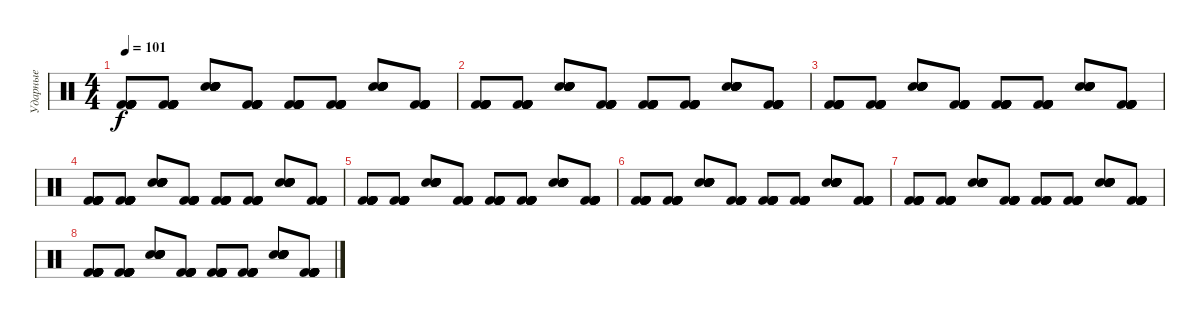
\track ("Ударные" "Ударные") {instrument percussion}
\staff {score}
\articulation defaults
\ts (4 4)
\tempo 101
\clef neutral
\ks c
("Kick (hit) 2" "Kick (hit) 2" "Kick (hit) 2" "Kick (hit) 2" "Kick (hit) 2" "Kick (hit) 2").8{dy f} ("Kick (hit) 2" "Kick (hit) 2" "Kick (hit) 2" "Kick (hit) 2" "Kick (hit) 2" "Kick (hit) 2").8 ("Snare (hit) 2" "Snare (hit) 2" "Snare (hit) 2" "Snare (hit) 2" "Snare (hit) 2" "Snare (hit) 2").8 ("Kick (hit) 2" "Kick (hit) 2" "Kick (hit) 2" "Kick (hit) 2" "Kick (hit) 2" "Kick (hit) 2").8 ("Kick (hit) 2" "Kick (hit) 2" "Kick (hit) 2" "Kick (hit) 2" "Kick (hit) 2" "Kick (hit) 2").8 ("Kick (hit) 2" "Kick (hit) 2" "Kick (hit) 2" "Kick (hit) 2" "Kick (hit) 2" "Kick (hit) 2").8 ("Snare (hit) 2" "Snare (hit) 2" "Snare (hit) 2" "Snare (hit) 2" "Snare (hit) 2" "Snare (hit) 2").8 ("Kick (hit) 2" "Kick (hit) 2" "Kick (hit) 2" "Kick (hit) 2" "Kick (hit) 2" "Kick (hit) 2").8 |
("Kick (hit) 2" "Kick (hit) 2" "Kick (hit) 2" "Kick (hit) 2" "Kick (hit) 2" "Kick (hit) 2").8 ("Kick (hit) 2" "Kick (hit) 2" "Kick (hit) 2" "Kick (hit) 2" "Kick (hit) 2" "Kick (hit) 2").8 ("Snare (hit) 2" "Snare (hit) 2" "Snare (hit) 2" "Snare (hit) 2" "Snare (hit) 2" "Snare (hit) 2").8 ("Kick (hit) 2" "Kick (hit) 2" "Kick (hit) 2" "Kick (hit) 2" "Kick (hit) 2" "Kick (hit) 2").8 ("Kick (hit) 2" "Kick (hit) 2" "Kick (hit) 2" "Kick (hit) 2" "Kick (hit) 2" "Kick (hit) 2").8 ("Kick (hit) 2" "Kick (hit) 2" "Kick (hit) 2" "Kick (hit) 2" "Kick (hit) 2" "Kick (hit) 2").8 ("Snare (hit) 2" "Snare (hit) 2" "Snare (hit) 2" "Snare (hit) 2" "Snare (hit) 2" "Snare (hit) 2").8 ("Kick (hit) 2" "Kick (hit) 2" "Kick (hit) 2" "Kick (hit) 2" "Kick (hit) 2" "Kick (hit) 2").8 |
("Kick (hit) 2" "Kick (hit) 2" "Kick (hit) 2" "Kick (hit) 2" "Kick (hit) 2" "Kick (hit) 2").8 ("Kick (hit) 2" "Kick (hit) 2" "Kick (hit) 2" "Kick (hit) 2" "Kick (hit) 2" "Kick (hit) 2").8 ("Snare (hit) 2" "Snare (hit) 2" "Snare (hit) 2" "Snare (hit) 2" "Snare (hit) 2" "Snare (hit) 2").8 ("Kick (hit) 2" "Kick (hit) 2" "Kick (hit) 2" "Kick (hit) 2" "Kick (hit) 2" "Kick (hit) 2").8 ("Kick (hit) 2" "Kick (hit) 2" "Kick (hit) 2" "Kick (hit) 2" "Kick (hit) 2" "Kick (hit) 2").8 ("Kick (hit) 2" "Kick (hit) 2" "Kick (hit) 2" "Kick (hit) 2" "Kick (hit) 2" "Kick (hit) 2").8 ("Snare (hit) 2" "Snare (hit) 2" "Snare (hit) 2" "Snare (hit) 2" "Snare (hit) 2" "Snare (hit) 2").8 ("Kick (hit) 2" "Kick (hit) 2" "Kick (hit) 2" "Kick (hit) 2" "Kick (hit) 2" "Kick (hit) 2").8 |
("Kick (hit) 2" "Kick (hit) 2" "Kick (hit) 2" "Kick (hit) 2" "Kick (hit) 2" "Kick (hit) 2").8 ("Kick (hit) 2" "Kick (hit) 2" "Kick (hit) 2" "Kick (hit) 2" "Kick (hit) 2" "Kick (hit) 2").8 ("Snare (hit) 2" "Snare (hit) 2" "Snare (hit) 2" "Snare (hit) 2" "Snare (hit) 2" "Snare (hit) 2").8 ("Kick (hit) 2" "Kick (hit) 2" "Kick (hit) 2" "Kick (hit) 2" "Kick (hit) 2" "Kick (hit) 2").8 ("Kick (hit) 2" "Kick (hit) 2" "Kick (hit) 2" "Kick (hit) 2" "Kick (hit) 2" "Kick (hit) 2").8 ("Kick (hit) 2" "Kick (hit) 2" "Kick (hit) 2" "Kick (hit) 2" "Kick (hit) 2" "Kick (hit) 2").8 ("Snare (hit) 2" "Snare (hit) 2" "Snare (hit) 2" "Snare (hit) 2" "Snare (hit) 2" "Snare (hit) 2").8 ("Kick (hit) 2" "Kick (hit) 2" "Kick (hit) 2" "Kick (hit) 2" "Kick (hit) 2" "Kick (hit) 2").8 |
("Kick (hit) 2" "Kick (hit) 2" "Kick (hit) 2" "Kick (hit) 2" "Kick (hit) 2" "Kick (hit) 2").8 ("Kick (hit) 2" "Kick (hit) 2" "Kick (hit) 2" "Kick (hit) 2" "Kick (hit) 2" "Kick (hit) 2").8 ("Snare (hit) 2" "Snare (hit) 2" "Snare (hit) 2" "Snare (hit) 2" "Snare (hit) 2" "Snare (hit) 2").8 ("Kick (hit) 2" "Kick (hit) 2" "Kick (hit) 2" "Kick (hit) 2" "Kick (hit) 2" "Kick (hit) 2").8 ("Kick (hit) 2" "Kick (hit) 2" "Kick (hit) 2" "Kick (hit) 2" "Kick (hit) 2" "Kick (hit) 2").8 ("Kick (hit) 2" "Kick (hit) 2" "Kick (hit) 2" "Kick (hit) 2" "Kick (hit) 2" "Kick (hit) 2").8 ("Snare (hit) 2" "Snare (hit) 2" "Snare (hit) 2" "Snare (hit) 2" "Snare (hit) 2" "Snare (hit) 2").8 ("Kick (hit) 2" "Kick (hit) 2" "Kick (hit) 2" "Kick (hit) 2" "Kick (hit) 2" "Kick (hit) 2").8 |
("Kick (hit) 2" "Kick (hit) 2" "Kick (hit) 2" "Kick (hit) 2" "Kick (hit) 2" "Kick (hit) 2").8 ("Kick (hit) 2" "Kick (hit) 2" "Kick (hit) 2" "Kick (hit) 2" "Kick (hit) 2" "Kick (hit) 2").8 ("Snare (hit) 2" "Snare (hit) 2" "Snare (hit) 2" "Snare (hit) 2" "Snare (hit) 2" "Snare (hit) 2").8 ("Kick (hit) 2" "Kick (hit) 2" "Kick (hit) 2" "Kick (hit) 2" "Kick (hit) 2" "Kick (hit) 2").8 ("Kick (hit) 2" "Kick (hit) 2" "Kick (hit) 2" "Kick (hit) 2" "Kick (hit) 2" "Kick (hit) 2").8 ("Kick (hit) 2" "Kick (hit) 2" "Kick (hit) 2" "Kick (hit) 2" "Kick (hit) 2" "Kick (hit) 2").8 ("Snare (hit) 2" "Snare (hit) 2" "Snare (hit) 2" "Snare (hit) 2" "Snare (hit) 2" "Snare (hit) 2").8 ("Kick (hit) 2" "Kick (hit) 2" "Kick (hit) 2" "Kick (hit) 2" "Kick (hit) 2" "Kick (hit) 2").8 |
("Kick (hit) 2" "Kick (hit) 2" "Kick (hit) 2" "Kick (hit) 2" "Kick (hit) 2" "Kick (hit) 2").8 ("Kick (hit) 2" "Kick (hit) 2" "Kick (hit) 2" "Kick (hit) 2" "Kick (hit) 2" "Kick (hit) 2").8 ("Snare (hit) 2" "Snare (hit) 2" "Snare (hit) 2" "Snare (hit) 2" "Snare (hit) 2" "Snare (hit) 2").8 ("Kick (hit) 2" "Kick (hit) 2" "Kick (hit) 2" "Kick (hit) 2" "Kick (hit) 2" "Kick (hit) 2").8 ("Kick (hit) 2" "Kick (hit) 2" "Kick (hit) 2" "Kick (hit) 2" "Kick (hit) 2" "Kick (hit) 2").8 ("Kick (hit) 2" "Kick (hit) 2" "Kick (hit) 2" "Kick (hit) 2" "Kick (hit) 2" "Kick (hit) 2").8 ("Snare (hit) 2" "Snare (hit) 2" "Snare (hit) 2" "Snare (hit) 2" "Snare (hit) 2" "Snare (hit) 2").8 ("Kick (hit) 2" "Kick (hit) 2" "Kick (hit) 2" "Kick (hit) 2" "Kick (hit) 2" "Kick (hit) 2").8 |
("Kick (hit) 2" "Kick (hit) 2" "Kick (hit) 2" "Kick (hit) 2" "Kick (hit) 2" "Kick (hit) 2").8 ("Kick (hit) 2" "Kick (hit) 2" "Kick (hit) 2" "Kick (hit) 2" "Kick (hit) 2" "Kick (hit) 2").8 ("Snare (hit) 2" "Snare (hit) 2" "Snare (hit) 2" "Snare (hit) 2" "Snare (hit) 2" "Snare (hit) 2").8 ("Kick (hit) 2" "Kick (hit) 2" "Kick (hit) 2" "Kick (hit) 2" "Kick (hit) 2" "Kick (hit) 2").8 ("Kick (hit) 2" "Kick (hit) 2" "Kick (hit) 2" "Kick (hit) 2" "Kick (hit) 2" "Kick (hit) 2").8 ("Kick (hit) 2" "Kick (hit) 2" "Kick (hit) 2" "Kick (hit) 2" "Kick (hit) 2" "Kick (hit) 2").8 ("Snare (hit) 2" "Snare (hit) 2" "Snare (hit) 2" "Snare (hit) 2" "Snare (hit) 2" "Snare (hit) 2").8 ("Kick (hit) 2" "Kick (hit) 2" "Kick (hit) 2" "Kick (hit) 2" "Kick (hit) 2" "Kick (hit) 2").8
